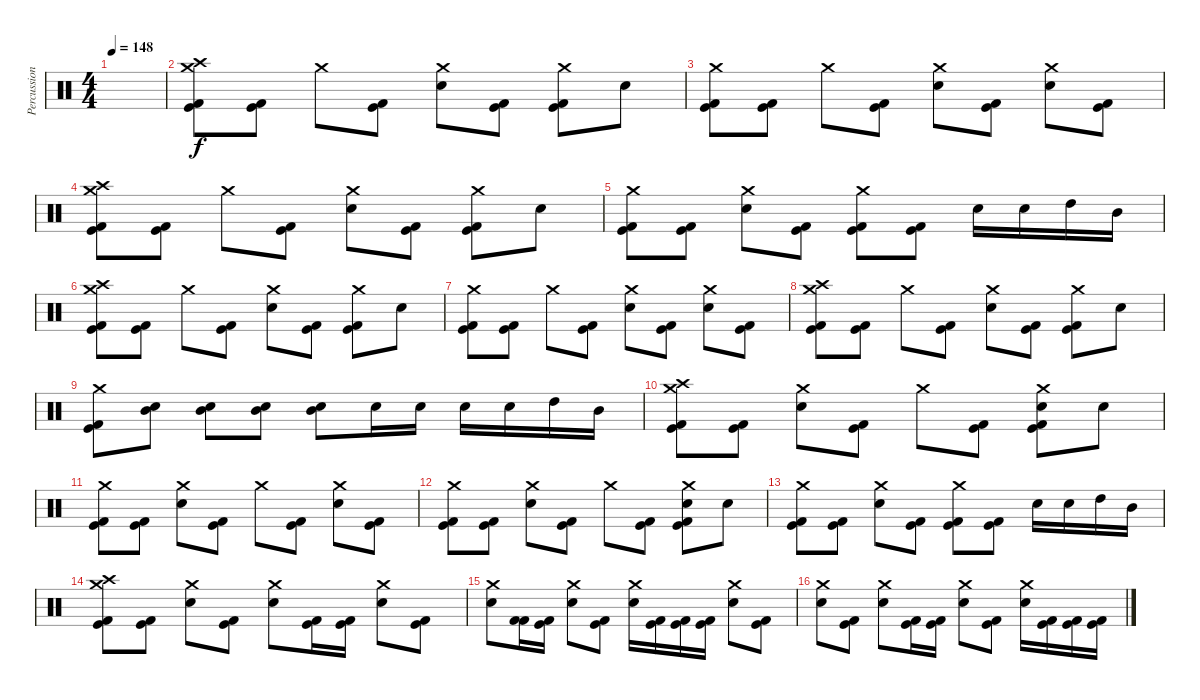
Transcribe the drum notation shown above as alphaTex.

\track ("Percussioni" "Percussion") {instrument percussion}
\staff {score}
\articulation defaults
\ts (4 4)
\tempo 148
\clef neutral
\ks c
|
("Crash high (hit)" "Crash medium (hit)" "Kick (hit)" "Kick (hit) 2").8 ("Kick (hit)" "Kick (hit) 2").8 "Crash medium (hit)".8 ("Kick (hit)" "Kick (hit) 2").8 ("Crash medium (hit)" "Snare (hit) 2").8 ("Kick (hit)" "Kick (hit) 2").8 ("Crash medium (hit)" "Kick (hit) 2" "Kick (hit)").8 "Snare (hit) 2".8 |
("Crash medium (hit)" "Kick (hit)" "Kick (hit) 2").8 ("Kick (hit)" "Kick (hit) 2").8 "Crash medium (hit)".8 ("Kick (hit)" "Kick (hit) 2").8 ("Crash medium (hit)" "Snare (hit) 2").8 ("Kick (hit)" "Kick (hit) 2").8 ("Crash medium (hit)" "Snare (hit) 2").8 ("Kick (hit)" "Kick (hit) 2").8 |
("Crash high (hit)" "Crash medium (hit)" "Kick (hit)" "Kick (hit) 2").8 ("Kick (hit)" "Kick (hit) 2").8 "Crash medium (hit)".8 ("Kick (hit)" "Kick (hit) 2").8 ("Crash medium (hit)" "Snare (hit) 2").8 ("Kick (hit)" "Kick (hit) 2").8 ("Crash medium (hit)" "Kick (hit) 2" "Kick (hit)").8 "Snare (hit) 2".8 |
("Crash medium (hit)" "Kick (hit)" "Kick (hit) 2").8 ("Kick (hit)" "Kick (hit) 2").8 ("Crash medium (hit)" "Snare (hit) 2").8 ("Kick (hit)" "Kick (hit) 2").8 ("Crash medium (hit)" "Kick (hit)" "Kick (hit) 2").8 ("Kick (hit)" "Kick (hit) 2").8 "Snare (hit) 2".16 "Snare (hit) 2".16 "High Tom (hit)".16 "Mid Tom (hit)".16 |
("Crash high (hit)" "Crash medium (hit)" "Kick (hit)" "Kick (hit) 2").8 ("Kick (hit)" "Kick (hit) 2").8 "Crash medium (hit)".8 ("Kick (hit)" "Kick (hit) 2").8 ("Crash medium (hit)" "Snare (hit) 2").8 ("Kick (hit)" "Kick (hit) 2").8 ("Crash medium (hit)" "Kick (hit) 2" "Kick (hit)").8 "Snare (hit) 2".8 |
("Crash medium (hit)" "Kick (hit)" "Kick (hit) 2").8 ("Kick (hit)" "Kick (hit) 2").8 "Crash medium (hit)".8 ("Kick (hit)" "Kick (hit) 2").8 ("Crash medium (hit)" "Snare (hit) 2").8 ("Kick (hit)" "Kick (hit) 2").8 ("Crash medium (hit)" "Snare (hit) 2").8 ("Kick (hit)" "Kick (hit) 2").8 |
("Crash high (hit)" "Crash medium (hit)" "Kick (hit)" "Kick (hit) 2").8 ("Kick (hit)" "Kick (hit) 2").8 "Crash medium (hit)".8 ("Kick (hit)" "Kick (hit) 2").8 ("Crash medium (hit)" "Snare (hit) 2").8 ("Kick (hit)" "Kick (hit) 2").8 ("Crash medium (hit)" "Kick (hit) 2" "Kick (hit)").8 "Snare (hit) 2".8 |
("Crash medium (hit)" "Kick (hit)" "Kick (hit) 2").8 ("Mid Tom (hit)" "Snare (hit) 2").8 ("Mid Tom (hit)" "Snare (hit) 2").8 ("Mid Tom (hit)" "Snare (hit) 2").8 ("Mid Tom (hit)" "Snare (hit) 2").8 "Snare (hit) 2".16 "Snare (hit) 2".16 "Snare (hit) 2".16 "Snare (hit) 2".16 "High Tom (hit)".16 "Mid Tom (hit)".16 |
("Crash high (hit)" "Crash medium (hit)" "Kick (hit)" "Kick (hit) 2").8 ("Kick (hit)" "Kick (hit) 2").8 ("Crash medium (hit)" "Snare (hit) 2").8 ("Kick (hit)" "Kick (hit) 2").8 "Crash medium (hit)".8 ("Kick (hit)" "Kick (hit) 2").8 ("Crash medium (hit)" "Snare (hit) 2" "Kick (hit) 2" "Kick (hit)").8 "Snare (hit) 2".8 |
("Crash medium (hit)" "Kick (hit)" "Kick (hit) 2").8 ("Kick (hit)" "Kick (hit) 2").8 ("Crash medium (hit)" "Snare (hit) 2").8 ("Kick (hit)" "Kick (hit) 2").8 "Crash medium (hit)".8 ("Kick (hit)" "Kick (hit) 2").8 ("Crash medium (hit)" "Snare (hit) 2").8 ("Kick (hit)" "Kick (hit) 2").8 |
("Crash medium (hit)" "Kick (hit)" "Kick (hit) 2").8 ("Kick (hit)" "Kick (hit) 2").8 ("Crash medium (hit)" "Snare (hit) 2").8 ("Kick (hit)" "Kick (hit) 2").8 "Crash medium (hit)".8 ("Kick (hit)" "Kick (hit) 2").8 ("Crash medium (hit)" "Snare (hit) 2" "Kick (hit) 2" "Kick (hit)").8 "Snare (hit) 2".8 |
("Crash medium (hit)" "Kick (hit)" "Kick (hit) 2").8 ("Kick (hit)" "Kick (hit) 2").8 ("Crash medium (hit)" "Snare (hit) 2").8 ("Kick (hit)" "Kick (hit) 2").8 ("Crash medium (hit)" "Kick (hit)" "Kick (hit) 2").8 ("Kick (hit)" "Kick (hit) 2").8 "Snare (hit) 2".16 "Snare (hit) 2".16 "High Tom (hit)".16 "Mid Tom (hit)".16 |
("Crash high (hit)" "Crash medium (hit)" "Kick (hit)" "Kick (hit) 2").8 ("Kick (hit)" "Kick (hit) 2").8 ("Crash medium (hit)" "Snare (hit) 2").8 ("Kick (hit)" "Kick (hit) 2").8 ("Crash medium (hit)" "Snare (hit) 2").8 ("Kick (hit)" "Kick (hit) 2").16 ("Kick (hit)" "Kick (hit) 2").16 ("Crash medium (hit)" "Snare (hit) 2").8 ("Kick (hit)" "Kick (hit) 2").8 |
("Crash medium (hit)" "Snare (hit) 2").8 ("Kick (hit) 2" "Kick (hit) 2").16 ("Kick (hit)" "Kick (hit) 2").16 ("Crash medium (hit)" "Snare (hit) 2").8 ("Kick (hit)" "Kick (hit) 2").8 ("Crash medium (hit)" "Snare (hit) 2").16 ("Kick (hit) 2" "Kick (hit)").16 ("Kick (hit) 2" "Kick (hit)").16 ("Kick (hit)" "Kick (hit) 2").16 ("Crash medium (hit)" "Snare (hit) 2").8 ("Kick (hit)" "Kick (hit) 2").8 |
("Crash medium (hit)" "Snare (hit) 2").8 ("Kick (hit)" "Kick (hit) 2").8 ("Crash medium (hit)" "Snare (hit) 2").8 ("Kick (hit)" "Kick (hit) 2").16 ("Kick (hit)" "Kick (hit) 2").16 ("Crash medium (hit)" "Snare (hit) 2").8 ("Kick (hit)" "Kick (hit) 2").8 ("Crash medium (hit)" "Snare (hit) 2").16 ("Kick (hit)" "Kick (hit) 2").16 ("Kick (hit)" "Kick (hit) 2").16 ("Kick (hit)" "Kick (hit) 2").16
